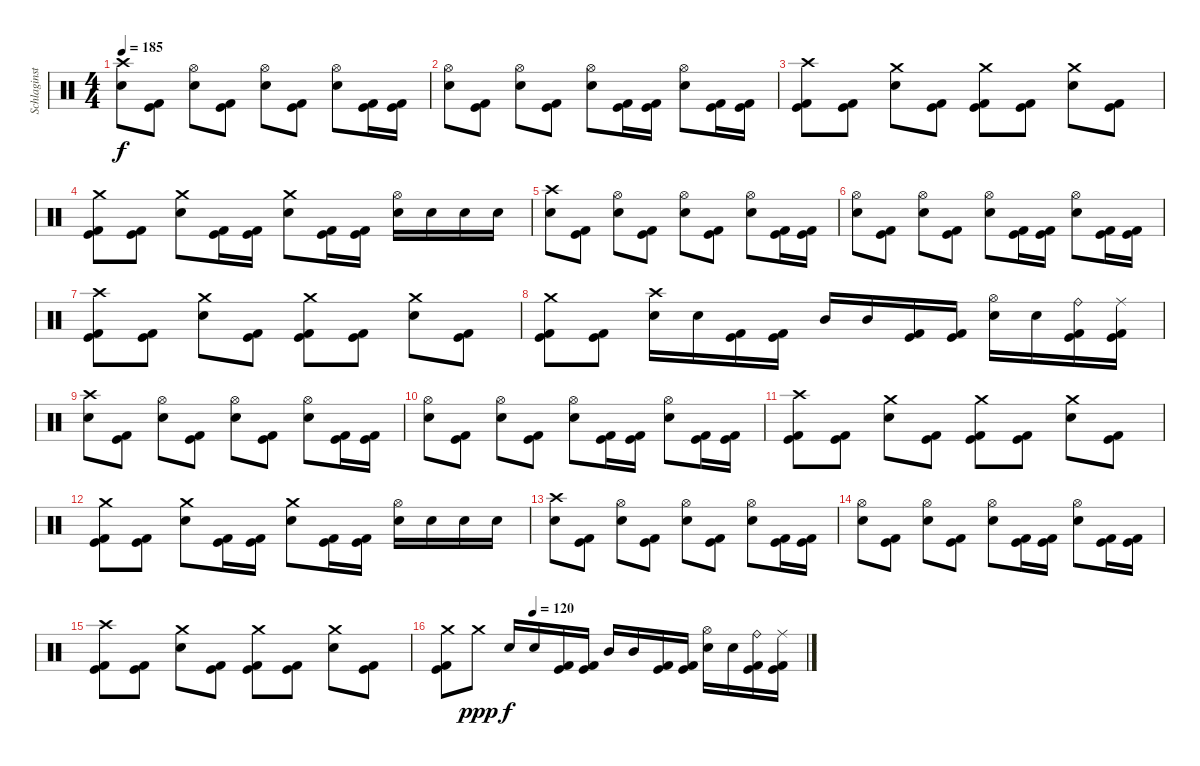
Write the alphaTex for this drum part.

\track ("Schlaginstrumente - Auswahl" "Schlaginst") {instrument percussion}
\staff {score}
\articulation defaults
\ts (4 4)
\tempo 185
\clef neutral
\ks c
("Crash high (hit)" "Electric Snare (hit)").8{dy f} ("Kick (hit)" "Kick (hit) 2").8 ("Hi-Hat (open)" "Electric Snare (hit)").8 ("Kick (hit)" "Kick (hit) 2").8 ("Hi-Hat (open)" "Electric Snare (hit)").8 ("Kick (hit)" "Kick (hit) 2").8 ("Hi-Hat (open)" "Electric Snare (hit)").8 ("Kick (hit)" "Kick (hit) 2").16 ("Kick (hit)" "Kick (hit) 2").16 |
("Hi-Hat (open)" "Electric Snare (hit)").8 ("Kick (hit)" "Kick (hit) 2").8 ("Hi-Hat (open)" "Electric Snare (hit)").8 ("Kick (hit)" "Kick (hit) 2").8 ("Hi-Hat (open)" "Electric Snare (hit)").8 ("Kick (hit)" "Kick (hit) 2").16 ("Kick (hit)" "Kick (hit) 2").16 ("Hi-Hat (open)" "Electric Snare (hit)").8 ("Kick (hit)" "Kick (hit) 2").16 ("Kick (hit)" "Kick (hit) 2").16 |
("Crash high (hit)" "Kick (hit)" "Kick (hit) 2").8 ("Kick (hit)" "Kick (hit) 2").8 ("Crash medium (hit)" "Electric Snare (hit)").8 ("Kick (hit)" "Kick (hit) 2").8 ("Crash medium (hit)" "Kick (hit)" "Kick (hit) 2").8 ("Kick (hit)" "Kick (hit) 2").8 ("Crash medium (hit)" "Electric Snare (hit)").8 ("Kick (hit)" "Kick (hit) 2").8 |
("Crash medium (hit)" "Kick (hit)" "Kick (hit) 2").8 ("Kick (hit)" "Kick (hit) 2").8 ("Crash medium (hit)" "Electric Snare (hit)").8 ("Kick (hit)" "Kick (hit) 2").16 ("Kick (hit)" "Kick (hit) 2").16 ("Crash medium (hit)" "Electric Snare (hit)").8 ("Kick (hit)" "Kick (hit) 2").16 ("Kick (hit)" "Kick (hit) 2").16 ("Hi-Hat (open)" "Electric Snare (hit)").16 "Electric Snare (hit)".16 "Electric Snare (hit)".16 "Electric Snare (hit)".16 |
("Crash high (hit)" "Electric Snare (hit)").8 ("Kick (hit)" "Kick (hit) 2").8 ("Hi-Hat (open)" "Electric Snare (hit)").8 ("Kick (hit)" "Kick (hit) 2").8 ("Hi-Hat (open)" "Electric Snare (hit)").8 ("Kick (hit)" "Kick (hit) 2").8 ("Hi-Hat (open)" "Electric Snare (hit)").8 ("Kick (hit)" "Kick (hit) 2").16 ("Kick (hit)" "Kick (hit) 2").16 |
("Hi-Hat (open)" "Electric Snare (hit)").8 ("Kick (hit)" "Kick (hit) 2").8 ("Hi-Hat (open)" "Electric Snare (hit)").8 ("Kick (hit)" "Kick (hit) 2").8 ("Hi-Hat (open)" "Electric Snare (hit)").8 ("Kick (hit)" "Kick (hit) 2").16 ("Kick (hit)" "Kick (hit) 2").16 ("Hi-Hat (open)" "Electric Snare (hit)").8 ("Kick (hit)" "Kick (hit) 2").16 ("Kick (hit)" "Kick (hit) 2").16 |
("Crash high (hit)" "Kick (hit)" "Kick (hit) 2").8 ("Kick (hit)" "Kick (hit) 2").8 ("Crash medium (hit)" "Electric Snare (hit)").8 ("Kick (hit)" "Kick (hit) 2").8 ("Crash medium (hit)" "Kick (hit)" "Kick (hit) 2").8 ("Kick (hit)" "Kick (hit) 2").8 ("Crash medium (hit)" "Electric Snare (hit)").8 ("Kick (hit)" "Kick (hit) 2").8 |
("Crash medium (hit)" "Kick (hit)" "Kick (hit) 2").8 ("Kick (hit)" "Kick (hit) 2").8 ("Crash high (hit)" "Electric Snare (hit)").16 "Electric Snare (hit)".16 ("Kick (hit)" "Kick (hit) 2").16 ("Kick (hit)" "Kick (hit) 2").16 "Mid Tom (hit)".16 "Mid Tom (hit)".16 ("Kick (hit)" "Kick (hit) 2").16 ("Kick (hit)" "Kick (hit) 2").16 ("Hi-Hat (open)" "Electric Snare (hit)").16 "Electric Snare (hit)".16 ("Ride (bell)" "Kick (hit)" "Kick (hit) 2").16 ("Ride (middle)" "Kick (hit)" "Kick (hit) 2").16 |
("Crash high (hit)" "Electric Snare (hit)").8 ("Kick (hit)" "Kick (hit) 2").8 ("Hi-Hat (open)" "Electric Snare (hit)").8 ("Kick (hit)" "Kick (hit) 2").8 ("Hi-Hat (open)" "Electric Snare (hit)").8 ("Kick (hit)" "Kick (hit) 2").8 ("Hi-Hat (open)" "Electric Snare (hit)").8 ("Kick (hit)" "Kick (hit) 2").16 ("Kick (hit)" "Kick (hit) 2").16 |
("Hi-Hat (open)" "Electric Snare (hit)").8 ("Kick (hit)" "Kick (hit) 2").8 ("Hi-Hat (open)" "Electric Snare (hit)").8 ("Kick (hit)" "Kick (hit) 2").8 ("Hi-Hat (open)" "Electric Snare (hit)").8 ("Kick (hit)" "Kick (hit) 2").16 ("Kick (hit)" "Kick (hit) 2").16 ("Hi-Hat (open)" "Electric Snare (hit)").8 ("Kick (hit)" "Kick (hit) 2").16 ("Kick (hit)" "Kick (hit) 2").16 |
("Crash high (hit)" "Kick (hit)" "Kick (hit) 2").8 ("Kick (hit)" "Kick (hit) 2").8 ("Crash medium (hit)" "Electric Snare (hit)").8 ("Kick (hit)" "Kick (hit) 2").8 ("Crash medium (hit)" "Kick (hit)" "Kick (hit) 2").8 ("Kick (hit)" "Kick (hit) 2").8 ("Crash medium (hit)" "Electric Snare (hit)").8 ("Kick (hit)" "Kick (hit) 2").8 |
("Crash medium (hit)" "Kick (hit)" "Kick (hit) 2").8 ("Kick (hit)" "Kick (hit) 2").8 ("Crash medium (hit)" "Electric Snare (hit)").8 ("Kick (hit)" "Kick (hit) 2").16 ("Kick (hit)" "Kick (hit) 2").16 ("Crash medium (hit)" "Electric Snare (hit)").8 ("Kick (hit)" "Kick (hit) 2").16 ("Kick (hit)" "Kick (hit) 2").16 ("Hi-Hat (open)" "Electric Snare (hit)").16 "Electric Snare (hit)".16 "Electric Snare (hit)".16 "Electric Snare (hit)".16 |
("Crash high (hit)" "Electric Snare (hit)").8 ("Kick (hit)" "Kick (hit) 2").8 ("Hi-Hat (open)" "Electric Snare (hit)").8 ("Kick (hit)" "Kick (hit) 2").8 ("Hi-Hat (open)" "Electric Snare (hit)").8 ("Kick (hit)" "Kick (hit) 2").8 ("Hi-Hat (open)" "Electric Snare (hit)").8 ("Kick (hit)" "Kick (hit) 2").16 ("Kick (hit)" "Kick (hit) 2").16 |
("Hi-Hat (open)" "Electric Snare (hit)").8 ("Kick (hit)" "Kick (hit) 2").8 ("Hi-Hat (open)" "Electric Snare (hit)").8 ("Kick (hit)" "Kick (hit) 2").8 ("Hi-Hat (open)" "Electric Snare (hit)").8 ("Kick (hit)" "Kick (hit) 2").16 ("Kick (hit)" "Kick (hit) 2").16 ("Hi-Hat (open)" "Electric Snare (hit)").8 ("Kick (hit)" "Kick (hit) 2").16 ("Kick (hit)" "Kick (hit) 2").16 |
("Crash high (hit)" "Kick (hit)" "Kick (hit) 2").8 ("Kick (hit)" "Kick (hit) 2").8 ("Crash medium (hit)" "Electric Snare (hit)").8 ("Kick (hit)" "Kick (hit) 2").8 ("Crash medium (hit)" "Kick (hit)" "Kick (hit) 2").8 ("Kick (hit)" "Kick (hit) 2").8 ("Crash medium (hit)" "Electric Snare (hit)").8 ("Kick (hit)" "Kick (hit) 2").8 |
\tempo (120 0.25)
("Crash medium (hit)" "Kick (hit)" "Kick (hit) 2").8 "Crash medium (hit)".8{dy ppp} "Electric Snare (hit)".16{dy f} "Electric Snare (hit)".16 ("Kick (hit)" "Kick (hit) 2").16 ("Kick (hit)" "Kick (hit) 2").16 "Mid Tom (hit)".16 "Mid Tom (hit)".16 ("Kick (hit)" "Kick (hit) 2").16 ("Kick (hit)" "Kick (hit) 2").16 ("Hi-Hat (open)" "Electric Snare (hit)").16 "Electric Snare (hit)".16 ("Ride (bell)" "Kick (hit)" "Kick (hit) 2").16 ("Ride (middle)" "Kick (hit)" "Kick (hit) 2").16
